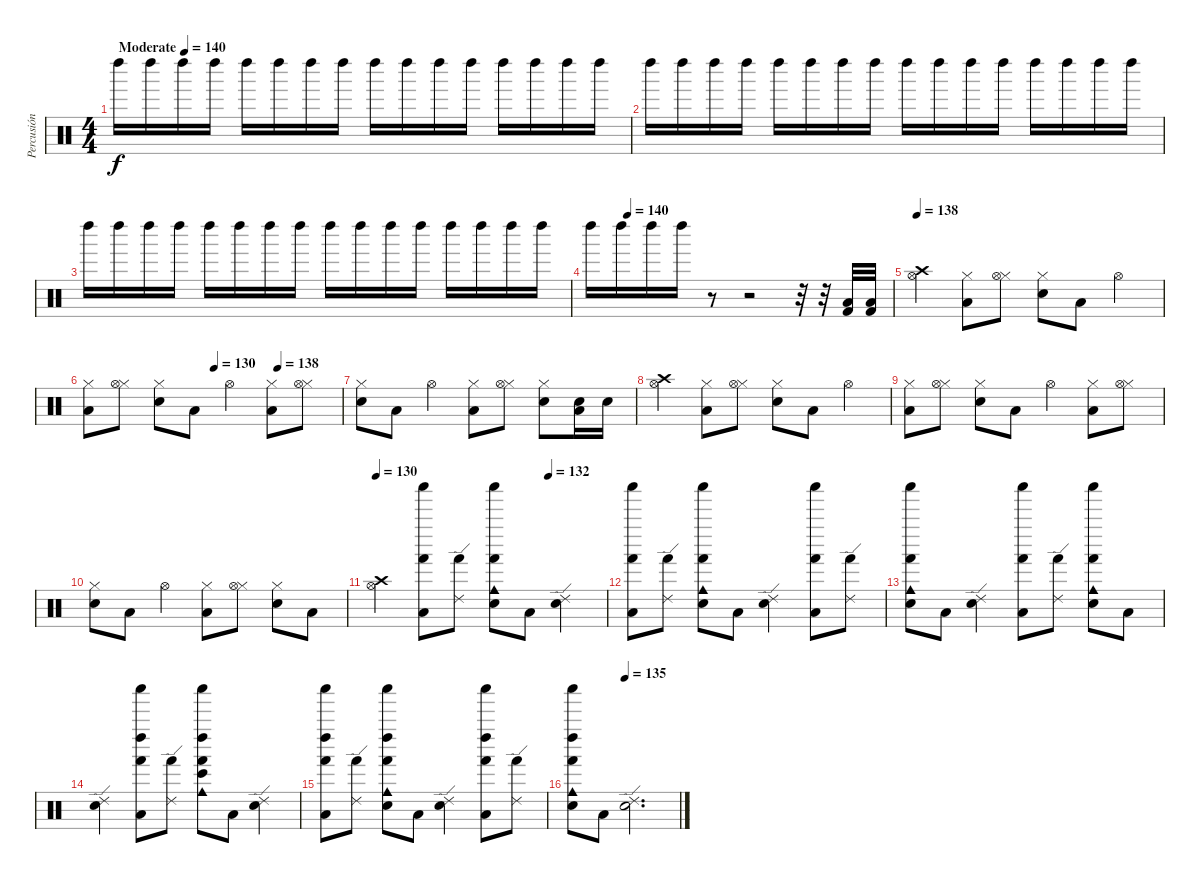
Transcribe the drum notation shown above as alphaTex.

\track ("Percusión" "Percusión") {instrument percussion}
\staff {score}
\articulation defaults
\ts (4 4)
\tempo (140 "Moderate")
\clef neutral
\ks c "Left Maraca (hit)".16{dy f} "Left Maraca (hit)".16 "Left Maraca (hit)".16 "Left Maraca (hit)".16 "Left Maraca (hit)".16 "Left Maraca (hit)".16 "Left Maraca (hit)".16 "Left Maraca (hit)".16 "Left Maraca (hit)".16 "Left Maraca (hit)".16 "Left Maraca (hit)".16 "Left Maraca (hit)".16 "Left Maraca (hit)".16 "Left Maraca (hit)".16 "Left Maraca (hit)".16 "Left Maraca (hit)".16
|
"Left Maraca (hit)".16 "Left Maraca (hit)".16 "Left Maraca (hit)".16 "Left Maraca (hit)".16 "Left Maraca (hit)".16 "Left Maraca (hit)".16 "Left Maraca (hit)".16 "Left Maraca (hit)".16 "Left Maraca (hit)".16 "Left Maraca (hit)".16 "Left Maraca (hit)".16 "Left Maraca (hit)".16 "Left Maraca (hit)".16 "Left Maraca (hit)".16 "Left Maraca (hit)".16 "Left Maraca (hit)".16 |
"Left Maraca (hit)".16 "Left Maraca (hit)".16 "Left Maraca (hit)".16 "Left Maraca (hit)".16 "Left Maraca (hit)".16 "Left Maraca (hit)".16 "Left Maraca (hit)".16 "Left Maraca (hit)".16 "Left Maraca (hit)".16 "Left Maraca (hit)".16 "Left Maraca (hit)".16 "Left Maraca (hit)".16 "Left Maraca (hit)".16 "Left Maraca (hit)".16 "Left Maraca (hit)".16 "Left Maraca (hit)".16 |
\tempo (140 0.125)
"Left Maraca (hit)".16 "Left Maraca (hit)".16 "Left Maraca (hit)".16 "Left Maraca (hit)".16 r.8 r.2 r.32 r.32 ("Kick (hit) 2" "Low Tom (hit)").32 ("Kick (hit) 2" "Low Tom (hit)").32 |
\tempo 138
("Hi-Hat (open)" "Crash high (hit)").4 ("Low Tom (hit)" "Hi-Hat (closed)").8 ("Hi-Hat (closed)" "Hi-Hat (open)").8 ("Snare (hit) 2" "Hi-Hat (closed)").8 "Low Tom (hit)".8 "Hi-Hat (open)".4 |
\tempo (130 0.5)
\tempo (138 0.75)
("Low Tom (hit)" "Hi-Hat (closed)").8 ("Hi-Hat (closed)" "Hi-Hat (open)").8 ("Snare (hit) 2" "Hi-Hat (closed)").8 "Low Tom (hit)".8 "Hi-Hat (open)".4 ("Low Tom (hit)" "Hi-Hat (closed)").8 ("Hi-Hat (closed)" "Hi-Hat (open)").8 |
("Snare (hit) 2" "Hi-Hat (closed)").8 "Low Tom (hit)".8 "Hi-Hat (open)".4 ("Low Tom (hit)" "Hi-Hat (closed)").8 ("Hi-Hat (closed)" "Hi-Hat (open)").8 ("Snare (hit) 2" "Hi-Hat (closed)").8 ("Snare (hit) 2" "Low Tom (hit)").16 "Snare (hit) 2".16 |
("Hi-Hat (open)" "Crash high (hit)").4 ("Low Tom (hit)" "Hi-Hat (closed)").8 ("Hi-Hat (closed)" "Hi-Hat (open)").8 ("Snare (hit) 2" "Hi-Hat (closed)").8 "Low Tom (hit)".8 "Hi-Hat (open)".4 |
("Low Tom (hit)" "Hi-Hat (closed)").8 ("Hi-Hat (closed)" "Hi-Hat (open)").8 ("Snare (hit) 2" "Hi-Hat (closed)").8 "Low Tom (hit)".8 "Hi-Hat (open)".4 ("Low Tom (hit)" "Hi-Hat (closed)").8 ("Hi-Hat (closed)" "Hi-Hat (open)").8 |
("Snare (hit) 2" "Hi-Hat (closed)").8 "Low Tom (hit)".8 "Hi-Hat (open)".4 ("Low Tom (hit)" "Hi-Hat (closed)").8 ("Hi-Hat (closed)" "Hi-Hat (open)").8 ("Snare (hit) 2" "Hi-Hat (closed)").8 "Low Tom (hit)".8 |
\tempo 130
\tempo (135 0.75)
\tempo (132 0.75)
("Hi-Hat (open)" "Crash high (hit)").4 ("Shaker (hit)" "Low Tom (hit)" "Hand (hit)").8 ("Hand (hit)" "Ride (edge) 2").8 ("Shaker (hit)" "Snare (hit) 2" "Hand (hit)" "Cowbell medium (hit)").8 "Low Tom (hit)".8 ("Snare (hit) 2" "Ride (edge) 2").4 |
("Shaker (hit)" "Low Tom (hit)" "Hand (hit)").8 ("Hand (hit)" "Ride (edge) 2").8 ("Shaker (hit)" "Snare (hit) 2" "Hand (hit)" "Cowbell medium (hit)").8 "Low Tom (hit)".8 ("Snare (hit) 2" "Ride (edge) 2").4 ("Shaker (hit)" "Low Tom (hit)" "Hand (hit)").8 ("Hand (hit)" "Ride (edge) 2").8 |
("Shaker (hit)" "Snare (hit) 2" "Hand (hit)" "Cowbell medium (hit)").8 "Low Tom (hit)".8 ("Snare (hit) 2" "Ride (edge) 2").4 ("Shaker (hit)" "Low Tom (hit)" "Hand (hit)").8 ("Hand (hit)" "Ride (edge) 2").8 ("Shaker (hit)" "Snare (hit) 2" "Hand (hit)" "Cowbell medium (hit)").8 "Low Tom (hit)".8 |
("Snare (hit) 2" "Ride (edge) 2").4 ("Left Maraca (hit)" "Shaker (hit)" "Low Tom (hit)" "Hand (hit)").8 ("Hand (hit)" "Ride (edge) 2").8 ("Left Maraca (hit)" "Shaker (hit)" "Bongo High (hit)" "Hand (hit)" "Cowbell medium (hit)").8 "Low Tom (hit)".8 ("Snare (hit) 2" "Ride (edge) 2").4 |
("Left Maraca (hit)" "Low Tom (hit)" "Shaker (hit)" "Hand (hit)").8 ("Hand (hit)" "Ride (edge) 2").8 ("Left Maraca (hit)" "Snare (hit) 2" "Shaker (hit)" "Hand (hit)" "Cowbell medium (hit)").8 "Low Tom (hit)".8 ("Snare (hit) 2" "Ride (edge) 2").4 ("Left Maraca (hit)" "Low Tom (hit)" "Shaker (hit)" "Hand (hit)").8 ("Hand (hit)" "Ride (edge) 2").8 |
\tempo (135 0.5)
("Left Maraca (hit)" "Snare (hit) 2" "Shaker (hit)" "Hand (hit)" "Cowbell medium (hit)").8 "Low Tom (hit)".8 ("Snare (hit) 2" "Ride (edge) 2").2{d}
